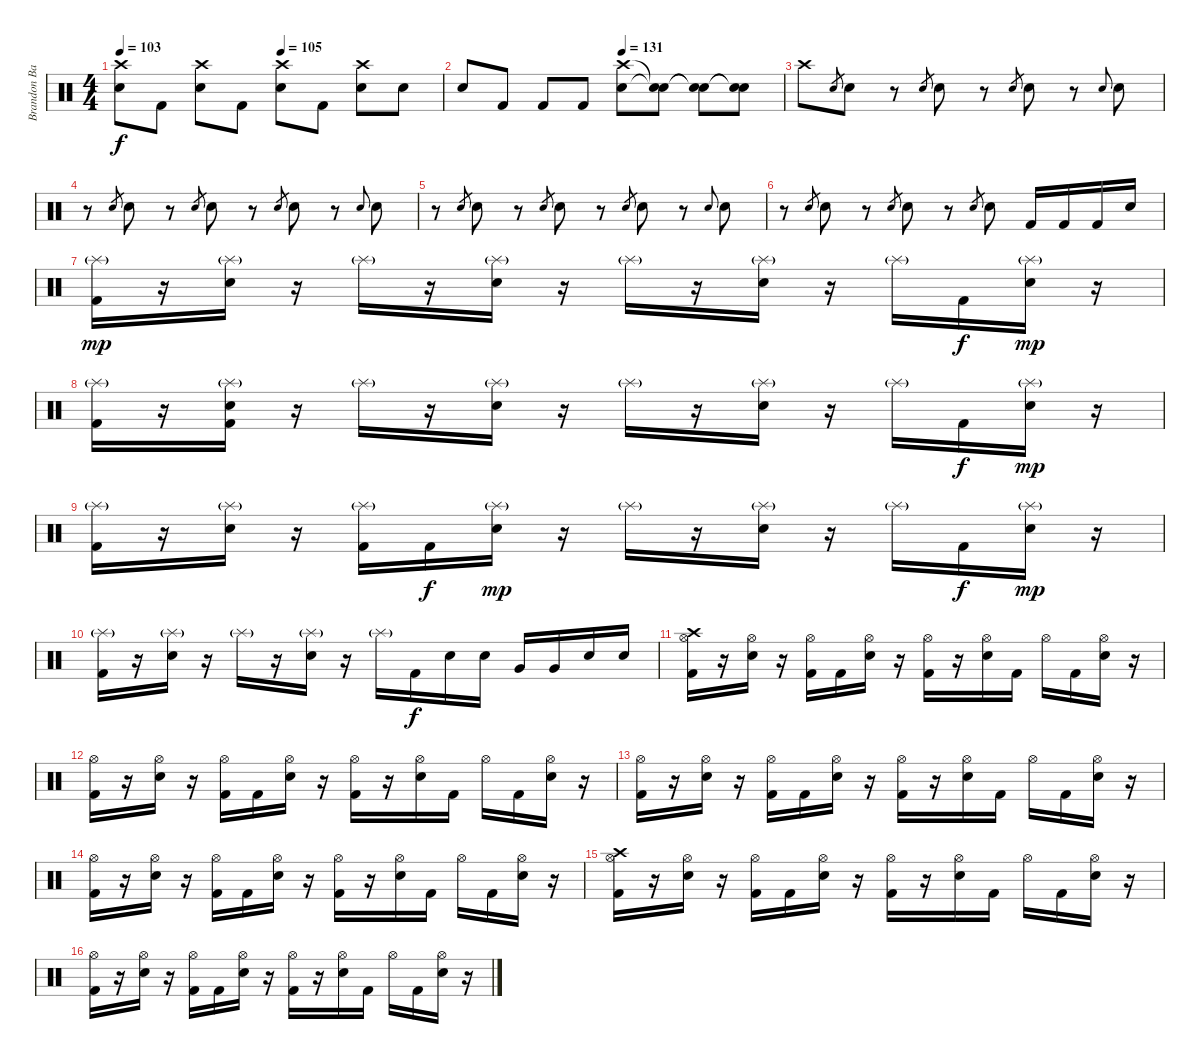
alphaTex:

\track ("Brandon Barnes (Drums)" "Brandon Ba") {instrument percussion}
\staff {score}
\articulation defaults
\ts (4 4)
\tempo 103
\tempo (105 0.5)
\clef neutral
\ks c
("Crash high (hit)" "Snare (hit) 2").8{dy f} "Kick (hit) 2".8 ("Crash high (hit)" "Snare (hit) 2").8 "Kick (hit) 2".8 ("Crash high (hit)" "Snare (hit) 2").8 "Kick (hit) 2".8 ("Crash high (hit)" "Snare (hit) 2").8 "Snare (hit) 2".8 |
\tempo (131 0.5)
"Snare (hit) 2".8 "Kick (hit) 2".8 "Kick (hit) 2".8 "Kick (hit) 2".8 ("Crash high (hit)" "Snare (hit) 2").8 ("Snare (hit)"{t} "Snare (hit)"{t}).8 ("Snare (hit)"{t} "Snare (hit)"{t}).8 ("Snare (hit)"{t} "Snare (hit)"{t}).8 |
"Crash high (hit)".8 "Snare (hit) 2".8{gr} "Snare (hit) 2".8 r.8 "Snare (hit) 2".8{gr} "Snare (hit) 2".8 r.8 "Snare (hit) 2".8{gr} "Snare (hit) 2".8 r.8 "Snare (hit) 2".8{gr onbeat} "Snare (hit) 2".8 |
r.8 "Snare (hit) 2".8{gr} "Snare (hit) 2".8 r.8 "Snare (hit) 2".8{gr} "Snare (hit) 2".8 r.8 "Snare (hit) 2".8{gr} "Snare (hit) 2".8 r.8 "Snare (hit) 2".8{gr onbeat} "Snare (hit) 2".8 |
r.8 "Snare (hit) 2".8{gr} "Snare (hit) 2".8 r.8 "Snare (hit) 2".8{gr} "Snare (hit) 2".8 r.8 "Snare (hit) 2".8{gr} "Snare (hit) 2".8 r.8 "Snare (hit) 2".8{gr onbeat} "Snare (hit) 2".8 |
r.8 "Snare (hit) 2".8{gr} "Snare (hit) 2".8 r.8 "Snare (hit) 2".8{gr} "Snare (hit) 2".8 r.8 "Snare (hit) 2".8{gr} "Snare (hit) 2".8 "Kick (hit) 2".16 "Kick (hit) 2".16 "Kick (hit) 2".16 "Snare (hit) 2".16 |
("Splash (hit)"{g} "Kick (hit) 2").16{dy mp} r.16 ("Splash (hit)"{g} "Snare (hit) 2").16 r.16 "Splash (hit)"{g}.16 r.16 ("Splash (hit)"{g} "Snare (hit) 2").16 r.16 "Splash (hit)"{g}.16 r.16 ("Splash (hit)"{g} "Snare (hit) 2").16 r.16 "Splash (hit)"{g}.16 "Kick (hit) 2".16{dy f} ("Splash (hit)"{g} "Snare (hit) 2").16{dy mp} r.16 |
("Splash (hit)"{g} "Kick (hit) 2").16 r.16 ("Splash (hit)"{g} "Kick (hit) 2" "Snare (hit) 2").16 r.16 "Splash (hit)"{g}.16 r.16 ("Splash (hit)"{g} "Snare (hit) 2").16 r.16 "Splash (hit)"{g}.16 r.16 ("Splash (hit)"{g} "Snare (hit) 2").16 r.16 "Splash (hit)"{g}.16 "Kick (hit) 2".16{dy f} ("Splash (hit)"{g} "Snare (hit) 2").16{dy mp} r.16 |
("Splash (hit)"{g} "Kick (hit) 2").16 r.16 ("Splash (hit)"{g} "Snare (hit) 2").16 r.16 ("Splash (hit)"{g} "Kick (hit) 2").16 "Kick (hit) 2".16{dy f} ("Splash (hit)"{g} "Snare (hit) 2").16{dy mp} r.16 "Splash (hit)"{g}.16 r.16 ("Splash (hit)"{g} "Snare (hit) 2").16 r.16 "Splash (hit)"{g}.16 "Kick (hit) 2".16{dy f} ("Splash (hit)"{g} "Snare (hit) 2").16{dy mp} r.16 |
("Splash (hit)"{g} "Kick (hit) 2").16 r.16 ("Splash (hit)"{g} "Snare (hit) 2").16 r.16 "Splash (hit)"{g}.16 r.16 ("Splash (hit)"{g} "Snare (hit) 2").16 r.16 "Splash (hit)"{g}.16 "Kick (hit) 2".16{dy f} "Snare (hit) 2".16 "Snare (hit) 2".16 "Very Low Tom (hit)".16 "Very Low Tom (hit)".16 "Snare (hit) 2".16 "Snare (hit) 2".16 |
("Hi-Hat (open)" "Kick (hit) 2" "Crash high (hit)").16 r.16 ("Hi-Hat (open)" "Snare (hit) 2").16 r.16 ("Hi-Hat (open)" "Kick (hit) 2").16 "Kick (hit) 2".16 ("Hi-Hat (open)" "Snare (hit) 2").16 r.16 ("Hi-Hat (open)" "Kick (hit) 2").16 r.16 ("Hi-Hat (open)" "Snare (hit) 2").16 "Kick (hit) 2".16 "Hi-Hat (open)".16 "Kick (hit) 2".16 ("Hi-Hat (open)" "Snare (hit) 2").16 r.16 |
("Hi-Hat (open)" "Kick (hit) 2").16 r.16 ("Hi-Hat (open)" "Snare (hit) 2").16 r.16 ("Hi-Hat (open)" "Kick (hit) 2").16 "Kick (hit) 2".16 ("Hi-Hat (open)" "Snare (hit) 2").16 r.16 ("Hi-Hat (open)" "Kick (hit) 2").16 r.16 ("Hi-Hat (open)" "Snare (hit) 2").16 "Kick (hit) 2".16 "Hi-Hat (open)".16 "Kick (hit) 2".16 ("Hi-Hat (open)" "Snare (hit) 2").16 r.16 |
("Hi-Hat (open)" "Kick (hit) 2").16 r.16 ("Hi-Hat (open)" "Snare (hit) 2").16 r.16 ("Hi-Hat (open)" "Kick (hit) 2").16 "Kick (hit) 2".16 ("Hi-Hat (open)" "Snare (hit) 2").16 r.16 ("Hi-Hat (open)" "Kick (hit) 2").16 r.16 ("Hi-Hat (open)" "Snare (hit) 2").16 "Kick (hit) 2".16 "Hi-Hat (open)".16 "Kick (hit) 2".16 ("Hi-Hat (open)" "Snare (hit) 2").16 r.16 |
("Hi-Hat (open)" "Kick (hit) 2").16 r.16 ("Hi-Hat (open)" "Snare (hit) 2").16 r.16 ("Hi-Hat (open)" "Kick (hit) 2").16 "Kick (hit) 2".16 ("Hi-Hat (open)" "Snare (hit) 2").16 r.16 ("Hi-Hat (open)" "Kick (hit) 2").16 r.16 ("Hi-Hat (open)" "Snare (hit) 2").16 "Kick (hit) 2".16 "Hi-Hat (open)".16 "Kick (hit) 2".16 ("Hi-Hat (open)" "Snare (hit) 2").16 r.16 |
("Hi-Hat (open)" "Kick (hit) 2" "Crash high (hit)").16 r.16 ("Hi-Hat (open)" "Snare (hit) 2").16 r.16 ("Hi-Hat (open)" "Kick (hit) 2").16 "Kick (hit) 2".16 ("Hi-Hat (open)" "Snare (hit) 2").16 r.16 ("Hi-Hat (open)" "Kick (hit) 2").16 r.16 ("Hi-Hat (open)" "Snare (hit) 2").16 "Kick (hit) 2".16 "Hi-Hat (open)".16 "Kick (hit) 2".16 ("Hi-Hat (open)" "Snare (hit) 2").16 r.16 |
("Hi-Hat (open)" "Kick (hit) 2").16 r.16 ("Hi-Hat (open)" "Snare (hit) 2").16 r.16 ("Hi-Hat (open)" "Kick (hit) 2").16 "Kick (hit) 2".16 ("Hi-Hat (open)" "Snare (hit) 2").16 r.16 ("Hi-Hat (open)" "Kick (hit) 2").16 r.16 ("Hi-Hat (open)" "Snare (hit) 2").16 "Kick (hit) 2".16 "Hi-Hat (open)".16 "Kick (hit) 2".16 ("Hi-Hat (open)" "Snare (hit) 2").16 r.16
